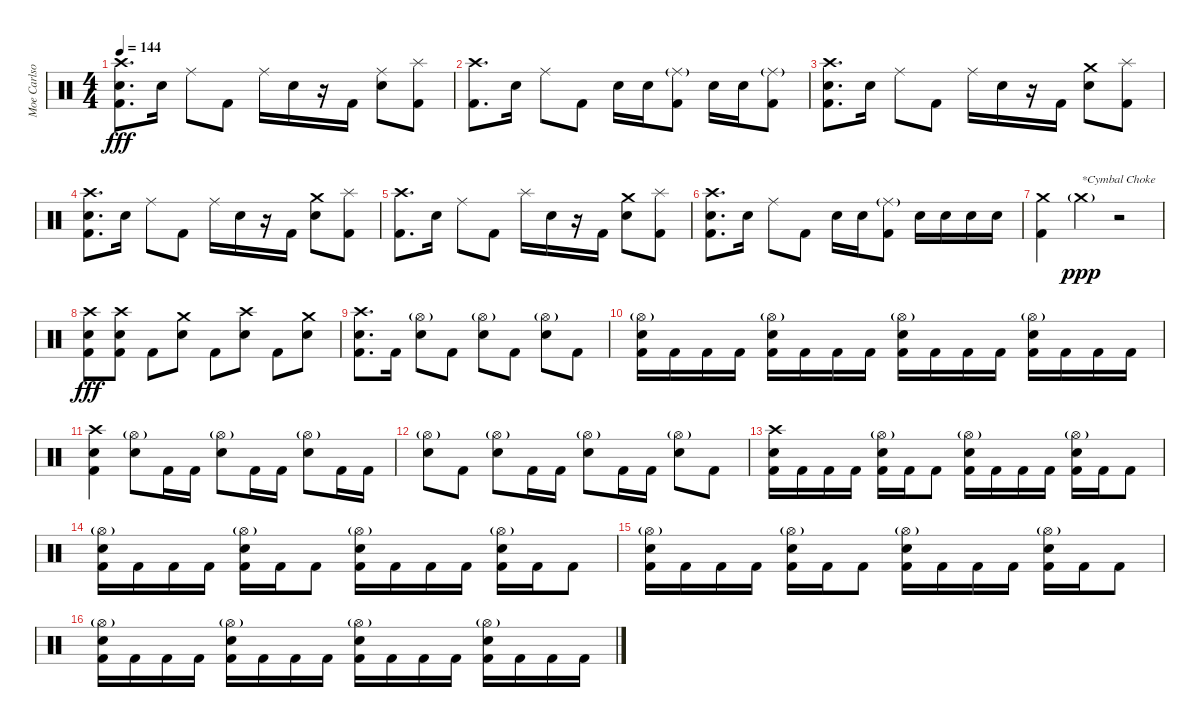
\track ("Moe Carlson" "Moe Carlso") {solo instrument percussion}
\staff {score}
\articulation defaults
\ts (4 4)
\tempo 144
\clef neutral
\ks c
("Crash high (hit)" "Electric Snare (hit)" "Kick (hit) 2").8{d dy fff} "Electric Snare (hit)".16 "Ride (middle)".8 "Kick (hit) 2".8 "Ride (middle)".16 "Electric Snare (hit)".16 r.16 "Kick (hit) 2".16 ("Ride (middle)" "Electric Snare (hit)").8 ("Splash (hit)" "Kick (hit) 2").8 |
("Crash high (hit)" "Kick (hit) 2").8{d} "Electric Snare (hit)".16 "Ride (middle)".8 "Kick (hit) 2".8 "Electric Snare (hit)".16 "Electric Snare (hit)".16 ("Ride (middle)"{g} "Kick (hit) 2").8 "Electric Snare (hit)".16 "Electric Snare (hit)".16 ("Ride (middle)"{g} "Kick (hit) 2").8 |
("Crash high (hit)" "Electric Snare (hit)" "Kick (hit) 2").8{d} "Electric Snare (hit)".16 "Ride (middle)".8 "Kick (hit) 2".8 "Ride (middle)".16 "Electric Snare (hit)".16 r.16 "Kick (hit) 2".16 ("Crash medium (hit)" "Electric Snare (hit)").8 ("Splash (hit)" "Kick (hit) 2").8 |
("Crash high (hit)" "Electric Snare (hit)" "Kick (hit) 2").8{d} "Electric Snare (hit)".16 "Ride (middle)".8 "Kick (hit) 2".8 "Ride (middle)".16 "Electric Snare (hit)".16 r.16 "Kick (hit) 2".16 ("Crash medium (hit)" "Electric Snare (hit)").8 ("Splash (hit)" "Kick (hit) 2").8 |
("Crash high (hit)" "Kick (hit) 2").8{d} "Electric Snare (hit)".16 "Ride (middle)".8 "Kick (hit) 2".8 "Splash (hit)".16 "Electric Snare (hit)".16 r.16 "Kick (hit) 2".16 ("Crash medium (hit)" "Electric Snare (hit)").8 ("Splash (hit)" "Kick (hit) 2").8 |
("Crash high (hit)" "Electric Snare (hit)" "Kick (hit) 2").8{d} "Electric Snare (hit)".16 "Ride (middle)".8 "Kick (hit) 2".8 "Electric Snare (hit)".16 "Electric Snare (hit)".16 ("Ride (middle)"{g} "Kick (hit) 2").8 "Electric Snare (hit)".16 "Electric Snare (hit)".16 "Electric Snare (hit)".16 "Electric Snare (hit)".16 |
("Crash medium (hit)" "Kick (hit) 2").4 "Crash medium (hit)"{g}.4{txt "*Cymbal Choke" dy ppp} r.2 |
("Crash high (hit)" "Electric Snare (hit)" "Kick (hit) 2").8{dy fff} ("Crash high (hit)" "Electric Snare (hit)" "Kick (hit) 2").8 "Kick (hit) 2".8 ("Crash medium (hit)" "Electric Snare (hit)").8 "Kick (hit) 2".8 ("Crash high (hit)" "Electric Snare (hit)").8 "Kick (hit) 2".8 ("Crash medium (hit)" "Electric Snare (hit)").8 |
("Crash high (hit)" "Electric Snare (hit)" "Kick (hit) 2").8{d} "Kick (hit) 2".16 ("Hi-Hat (open)"{g} "Electric Snare (hit)").8 "Kick (hit) 2".8 ("Hi-Hat (open)"{g} "Electric Snare (hit)").8 "Kick (hit) 2".8 ("Hi-Hat (open)"{g} "Electric Snare (hit)").8 "Kick (hit) 2".8 |
("Hi-Hat (open)"{g} "Electric Snare (hit)" "Kick (hit) 2").16 "Kick (hit) 2".16 "Kick (hit) 2".16 "Kick (hit) 2".16 ("Hi-Hat (open)"{g} "Electric Snare (hit)" "Kick (hit) 2").16 "Kick (hit) 2".16 "Kick (hit) 2".16 "Kick (hit) 2".16 ("Hi-Hat (open)"{g} "Electric Snare (hit)" "Kick (hit) 2").16 "Kick (hit) 2".16 "Kick (hit) 2".16 "Kick (hit) 2".16 ("Hi-Hat (open)"{g} "Electric Snare (hit)" "Kick (hit) 2").16 "Kick (hit) 2".16 "Kick (hit) 2".16 "Kick (hit) 2".16 |
("Crash high (hit)" "Electric Snare (hit)" "Kick (hit) 2").4 ("Hi-Hat (open)"{g} "Electric Snare (hit)").8 "Kick (hit) 2".16 "Kick (hit) 2".16 ("Hi-Hat (open)"{g} "Electric Snare (hit)").8 "Kick (hit) 2".16 "Kick (hit) 2".16 ("Hi-Hat (open)"{g} "Electric Snare (hit)").8 "Kick (hit) 2".16 "Kick (hit) 2".16 |
("Hi-Hat (open)"{g} "Electric Snare (hit)").8 "Kick (hit) 2".8 ("Hi-Hat (open)"{g} "Electric Snare (hit)").8 "Kick (hit) 2".16 "Kick (hit) 2".16 ("Hi-Hat (open)"{g} "Electric Snare (hit)").8 "Kick (hit) 2".16 "Kick (hit) 2".16 ("Hi-Hat (open)"{g} "Electric Snare (hit)").8 "Kick (hit) 2".8 |
("Crash high (hit)" "Electric Snare (hit)" "Kick (hit) 2").16 "Kick (hit) 2".16 "Kick (hit) 2".16 "Kick (hit) 2".16 ("Hi-Hat (open)"{g} "Electric Snare (hit)" "Kick (hit) 2").16 "Kick (hit) 2".16 "Kick (hit) 2".8 ("Hi-Hat (open)"{g} "Electric Snare (hit)" "Kick (hit) 2").16 "Kick (hit) 2".16 "Kick (hit) 2".16 "Kick (hit) 2".16 ("Hi-Hat (open)"{g} "Electric Snare (hit)" "Kick (hit) 2").16 "Kick (hit) 2".16 "Kick (hit) 2".8 |
("Hi-Hat (open)"{g} "Electric Snare (hit)" "Kick (hit) 2").16 "Kick (hit) 2".16 "Kick (hit) 2".16 "Kick (hit) 2".16 ("Hi-Hat (open)"{g} "Electric Snare (hit)" "Kick (hit) 2").16 "Kick (hit) 2".16 "Kick (hit) 2".8 ("Hi-Hat (open)"{g} "Electric Snare (hit)" "Kick (hit) 2").16 "Kick (hit) 2".16 "Kick (hit) 2".16 "Kick (hit) 2".16 ("Hi-Hat (open)"{g} "Electric Snare (hit)" "Kick (hit) 2").16 "Kick (hit) 2".16 "Kick (hit) 2".8 |
("Hi-Hat (open)"{g} "Electric Snare (hit)" "Kick (hit) 2").16 "Kick (hit) 2".16 "Kick (hit) 2".16 "Kick (hit) 2".16 ("Hi-Hat (open)"{g} "Electric Snare (hit)" "Kick (hit) 2").16 "Kick (hit) 2".16 "Kick (hit) 2".8 ("Hi-Hat (open)"{g} "Electric Snare (hit)" "Kick (hit) 2").16 "Kick (hit) 2".16 "Kick (hit) 2".16 "Kick (hit) 2".16 ("Hi-Hat (open)"{g} "Electric Snare (hit)" "Kick (hit) 2").16 "Kick (hit) 2".16 "Kick (hit) 2".8 |
("Hi-Hat (open)"{g} "Electric Snare (hit)" "Kick (hit) 2").16 "Kick (hit) 2".16 "Kick (hit) 2".16 "Kick (hit) 2".16 ("Hi-Hat (open)"{g} "Electric Snare (hit)" "Kick (hit) 2").16 "Kick (hit) 2".16 "Kick (hit) 2".16 "Kick (hit) 2".16 ("Hi-Hat (open)"{g} "Electric Snare (hit)" "Kick (hit) 2").16 "Kick (hit) 2".16 "Kick (hit) 2".16 "Kick (hit) 2".16 ("Hi-Hat (open)"{g} "Electric Snare (hit)" "Kick (hit) 2").16 "Kick (hit) 2".16 "Kick (hit) 2".16 "Kick (hit) 2".16
